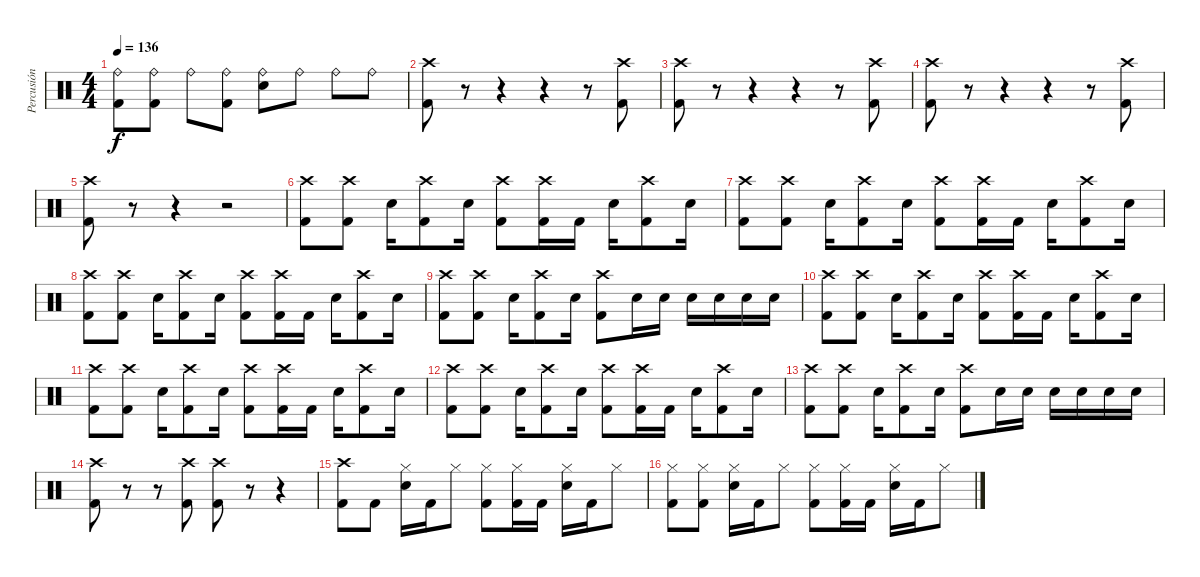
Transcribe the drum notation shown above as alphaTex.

\track ("Percusión" "Percusión") {instrument percussion}
\staff {score}
\articulation defaults
\ts (4 4)
\tempo 136
\clef neutral
\ks c
("Ride (bell)" "Kick (hit) 2").8{dy f} ("Ride (bell)" "Kick (hit) 2").8 "Ride (bell)".8 ("Ride (bell)" "Kick (hit) 2").8 ("Ride (bell)" "Electric Snare (hit)").8 "Ride (bell)".8 "Ride (bell)".8 "Ride (bell)".8 |
("Crash high (hit)" "Kick (hit) 2").8 r.8 r.4 r.4 r.8 ("Crash high (hit)" "Kick (hit) 2").8 |
("Crash high (hit)" "Kick (hit) 2").8 r.8 r.4 r.4 r.8 ("Crash high (hit)" "Kick (hit) 2").8 |
("Crash high (hit)" "Kick (hit) 2").8 r.8 r.4 r.4 r.8 ("Crash high (hit)" "Kick (hit) 2").8 |
("Crash high (hit)" "Kick (hit) 2").8 r.8 r.4 r.2 |
("Crash high (hit)" "Kick (hit) 2").8 ("Crash high (hit)" "Kick (hit) 2").8 "Electric Snare (hit)".16 ("Crash high (hit)" "Kick (hit) 2").8 "Electric Snare (hit)".16 ("Crash high (hit)" "Kick (hit) 2").8 ("Crash high (hit)" "Kick (hit) 2").16 "Kick (hit) 2".16 "Electric Snare (hit)".16 ("Crash high (hit)" "Kick (hit) 2").8 "Electric Snare (hit)".16 |
("Crash high (hit)" "Kick (hit) 2").8 ("Crash high (hit)" "Kick (hit) 2").8 "Electric Snare (hit)".16 ("Crash high (hit)" "Kick (hit) 2").8 "Electric Snare (hit)".16 ("Crash high (hit)" "Kick (hit) 2").8 ("Crash high (hit)" "Kick (hit) 2").16 "Kick (hit) 2".16 "Electric Snare (hit)".16 ("Crash high (hit)" "Kick (hit) 2").8 "Electric Snare (hit)".16 |
("Crash high (hit)" "Kick (hit) 2").8 ("Crash high (hit)" "Kick (hit) 2").8 "Electric Snare (hit)".16 ("Crash high (hit)" "Kick (hit) 2").8 "Electric Snare (hit)".16 ("Crash high (hit)" "Kick (hit) 2").8 ("Crash high (hit)" "Kick (hit) 2").16 "Kick (hit) 2".16 "Electric Snare (hit)".16 ("Crash high (hit)" "Kick (hit) 2").8 "Electric Snare (hit)".16 |
("Crash high (hit)" "Kick (hit) 2").8 ("Crash high (hit)" "Kick (hit) 2").8 "Electric Snare (hit)".16 ("Crash high (hit)" "Kick (hit) 2").8 "Electric Snare (hit)".16 ("Crash high (hit)" "Kick (hit) 2").8 "Electric Snare (hit)".16 "Electric Snare (hit)".16 "Electric Snare (hit)".16 "Electric Snare (hit)".16 "Electric Snare (hit)".16 "Electric Snare (hit)".16 |
("Crash high (hit)" "Kick (hit) 2").8 ("Crash high (hit)" "Kick (hit) 2").8 "Electric Snare (hit)".16 ("Crash high (hit)" "Kick (hit) 2").8 "Electric Snare (hit)".16 ("Crash high (hit)" "Kick (hit) 2").8 ("Crash high (hit)" "Kick (hit) 2").16 "Kick (hit) 2".16 "Electric Snare (hit)".16 ("Crash high (hit)" "Kick (hit) 2").8 "Electric Snare (hit)".16 |
("Crash high (hit)" "Kick (hit) 2").8 ("Crash high (hit)" "Kick (hit) 2").8 "Electric Snare (hit)".16 ("Crash high (hit)" "Kick (hit) 2").8 "Electric Snare (hit)".16 ("Crash high (hit)" "Kick (hit) 2").8 ("Crash high (hit)" "Kick (hit) 2").16 "Kick (hit) 2".16 "Electric Snare (hit)".16 ("Crash high (hit)" "Kick (hit) 2").8 "Electric Snare (hit)".16 |
("Crash high (hit)" "Kick (hit) 2").8 ("Crash high (hit)" "Kick (hit) 2").8 "Electric Snare (hit)".16 ("Crash high (hit)" "Kick (hit) 2").8 "Electric Snare (hit)".16 ("Crash high (hit)" "Kick (hit) 2").8 ("Crash high (hit)" "Kick (hit) 2").16 "Kick (hit) 2".16 "Electric Snare (hit)".16 ("Crash high (hit)" "Kick (hit) 2").8 "Electric Snare (hit)".16 |
("Crash high (hit)" "Kick (hit) 2").8 ("Crash high (hit)" "Kick (hit) 2").8 "Electric Snare (hit)".16 ("Crash high (hit)" "Kick (hit) 2").8 "Electric Snare (hit)".16 ("Crash high (hit)" "Kick (hit) 2").8 "Electric Snare (hit)".16 "Electric Snare (hit)".16 "Electric Snare (hit)".16 "Electric Snare (hit)".16 "Electric Snare (hit)".16 "Electric Snare (hit)".16 |
("Crash high (hit)" "Kick (hit) 2").8 r.8 r.8 ("Crash high (hit)" "Kick (hit) 2").8 ("Crash high (hit)" "Kick (hit) 2").8 r.8 r.4 |
("Crash high (hit)" "Kick (hit) 2").8 "Kick (hit) 2".8 ("Hi-Hat (closed)" "Electric Snare (hit)").16 "Kick (hit) 2".16 "Hi-Hat (closed)".8 ("Hi-Hat (closed)" "Kick (hit) 2").8 ("Hi-Hat (closed)" "Kick (hit) 2").16 "Kick (hit) 2".16 ("Hi-Hat (closed)" "Electric Snare (hit)").16 "Kick (hit) 2".16 "Hi-Hat (closed)".8 |
("Hi-Hat (closed)" "Kick (hit) 2").8 ("Hi-Hat (closed)" "Kick (hit) 2").8 ("Hi-Hat (closed)" "Electric Snare (hit)").16 "Kick (hit) 2".16 "Hi-Hat (closed)".8 ("Hi-Hat (closed)" "Kick (hit) 2").8 ("Hi-Hat (closed)" "Kick (hit) 2").16 "Kick (hit) 2".16 ("Hi-Hat (closed)" "Electric Snare (hit)").16 "Kick (hit) 2".16 "Hi-Hat (closed)".8
